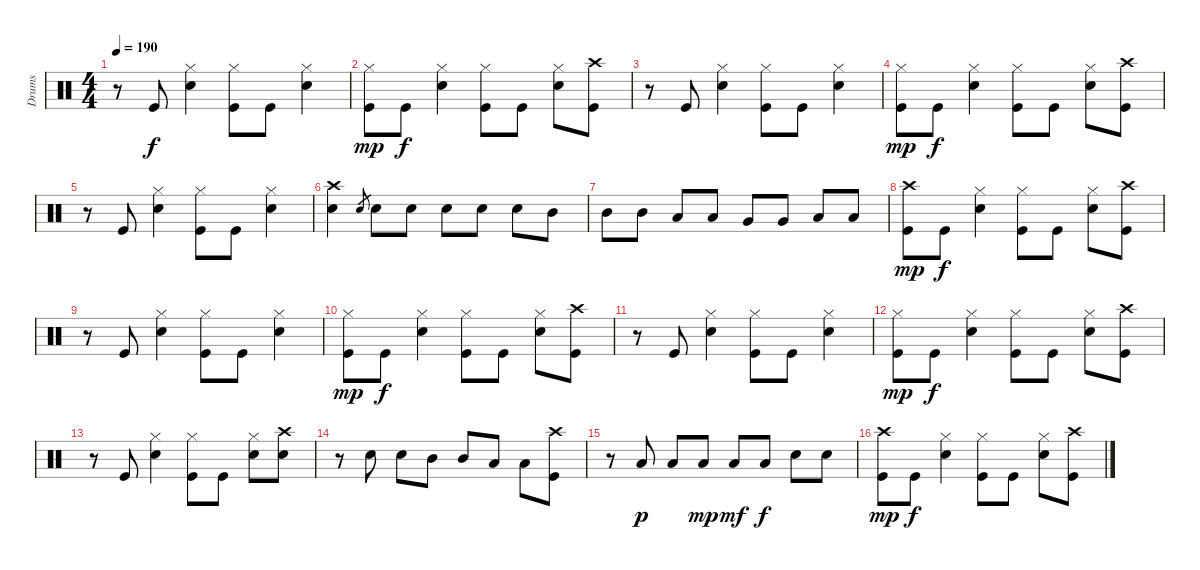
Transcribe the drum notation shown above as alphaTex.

\track ("Drums" "Drums") {instrument percussion}
\staff {score}
\articulation defaults
\ts (4 4)
\tempo 190
\clef neutral
\ks c
r.8{dy f} "Kick (hit)".8 ("Hi-Hat (closed)" "Snare (hit) 2").4 ("Hi-Hat (closed)" "Kick (hit)").8 "Kick (hit)".8 ("Hi-Hat (closed)" "Snare (hit) 2").4 |
("Hi-Hat (closed)" "Kick (hit)").8{dy mp} "Kick (hit)".8{dy f} ("Hi-Hat (closed)" "Snare (hit) 2").4 ("Hi-Hat (closed)" "Kick (hit)").8 "Kick (hit)".8 ("Hi-Hat (closed)" "Snare (hit) 2").8 ("Crash high (hit)" "Kick (hit)").8 |
r.8 "Kick (hit)".8 ("Hi-Hat (closed)" "Snare (hit) 2").4 ("Hi-Hat (closed)" "Kick (hit)").8 "Kick (hit)".8 ("Hi-Hat (closed)" "Snare (hit) 2").4 |
("Hi-Hat (closed)" "Kick (hit)").8{dy mp} "Kick (hit)".8{dy f} ("Hi-Hat (closed)" "Snare (hit) 2").4 ("Hi-Hat (closed)" "Kick (hit)").8 "Kick (hit)".8 ("Hi-Hat (closed)" "Snare (hit) 2").8 ("Crash high (hit)" "Kick (hit)").8 |
r.8 "Kick (hit)".8 ("Hi-Hat (closed)" "Snare (hit) 2").4 ("Hi-Hat (closed)" "Kick (hit)").8 "Kick (hit)".8 ("Hi-Hat (closed)" "Snare (hit) 2").4 |
("Crash high (hit)" "Snare (hit) 2").4 "Snare (hit) 2".8{gr} "Snare (hit) 2".8 "Snare (hit) 2".8 "Snare (hit) 2".8 "Snare (hit) 2".8 "Snare (hit) 2".8 "Mid Tom (hit)".8 |
"Mid Tom (hit)".8 "Mid Tom (hit)".8 "Low Tom (hit)".8 "Low Tom (hit)".8 "Very Low Tom (hit)".8 "Very Low Tom (hit)".8 "Low Floor Tom (hit)".8 "Low Floor Tom (hit)".8 |
("Crash high (hit)" "Kick (hit)").8{dy mp} "Kick (hit)".8{dy f} ("Hi-Hat (closed)" "Snare (hit) 2").4 ("Hi-Hat (closed)" "Kick (hit)").8 "Kick (hit)".8 ("Hi-Hat (closed)" "Snare (hit) 2").8 ("Crash high (hit)" "Kick (hit)").8 |
r.8 "Kick (hit)".8 ("Hi-Hat (closed)" "Snare (hit) 2").4 ("Hi-Hat (closed)" "Kick (hit)").8 "Kick (hit)".8 ("Hi-Hat (closed)" "Snare (hit) 2").4 |
("Hi-Hat (closed)" "Kick (hit)").8{dy mp} "Kick (hit)".8{dy f} ("Hi-Hat (closed)" "Snare (hit) 2").4 ("Hi-Hat (closed)" "Kick (hit)").8 "Kick (hit)".8 ("Hi-Hat (closed)" "Snare (hit) 2").8 ("Crash high (hit)" "Kick (hit)").8 |
r.8 "Kick (hit)".8 ("Hi-Hat (closed)" "Snare (hit) 2").4 ("Hi-Hat (closed)" "Kick (hit)").8 "Kick (hit)".8 ("Hi-Hat (closed)" "Snare (hit) 2").4 |
("Hi-Hat (closed)" "Kick (hit)").8{dy mp} "Kick (hit)".8{dy f} ("Hi-Hat (closed)" "Snare (hit) 2").4 ("Hi-Hat (closed)" "Kick (hit)").8 "Kick (hit)".8 ("Hi-Hat (closed)" "Snare (hit) 2").8 ("Crash high (hit)" "Kick (hit)").8 |
r.8 "Kick (hit)".8 ("Hi-Hat (closed)" "Snare (hit) 2").4 ("Hi-Hat (closed)" "Kick (hit)").8 "Kick (hit)".8 ("Hi-Hat (closed)" "Snare (hit) 2").8 ("Crash high (hit)" "Snare (hit) 2").8 |
r.8 "Snare (hit) 2".8 "Snare (hit) 2".8 "Mid Tom (hit)".8 "Mid Tom (hit)".8 "Low Floor Tom (hit)".8 "Low Floor Tom (hit)".8 ("Crash high (hit)" "Kick (hit)").8 |
r.8 "Low Floor Tom (hit)".8{dy p} "Low Floor Tom (hit)".8 "Low Floor Tom (hit)".8{dy mp} "Low Floor Tom (hit)".8{dy mf} "Low Floor Tom (hit)".8{dy f} "Snare (hit) 2".8 "Snare (hit) 2".8 |
("Crash high (hit)" "Kick (hit)").8{dy mp} "Kick (hit)".8{dy f} ("Hi-Hat (closed)" "Snare (hit) 2").4 ("Hi-Hat (closed)" "Kick (hit)").8 "Kick (hit)".8 ("Hi-Hat (closed)" "Snare (hit) 2").8 ("Crash high (hit)" "Kick (hit)").8
